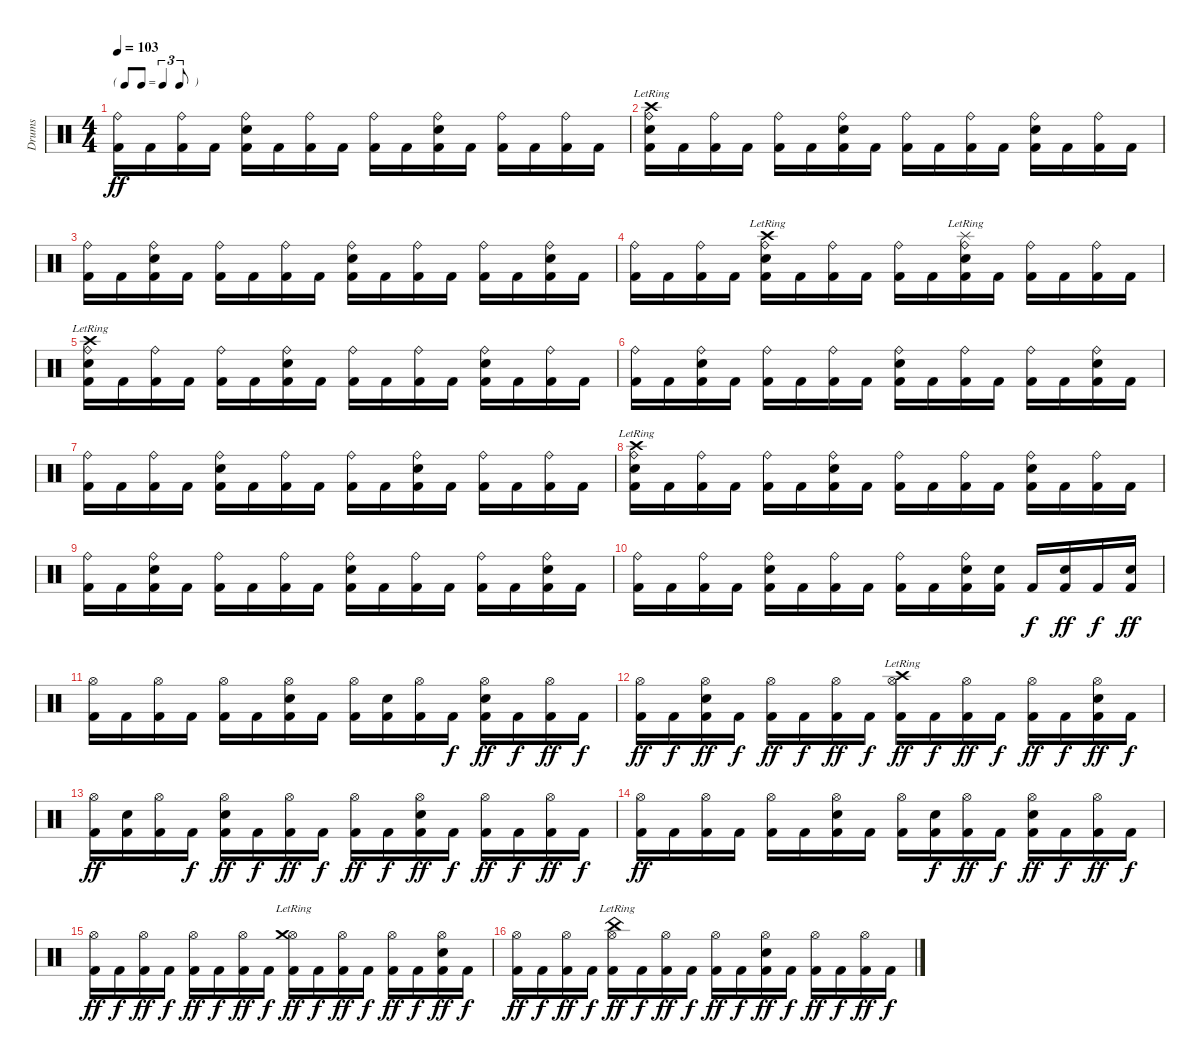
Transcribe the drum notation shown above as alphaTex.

\track ("Drums" "Drums") {instrument percussion}
\staff {score}
\articulation defaults
\ts (4 4)
\tf triplet8th
\tempo 103
\clef neutral
\ks c
("Ride (bell)" "Kick (hit) 2").16{dy ff} "Kick (hit) 2".16 ("Ride (bell)" "Kick (hit) 2").16 "Kick (hit) 2".16 ("Ride (bell)" "Electric Snare (hit)" "Kick (hit) 2").16 "Kick (hit) 2".16 ("Ride (bell)" "Kick (hit) 2").16 "Kick (hit) 2".16 ("Ride (bell)" "Kick (hit) 2").16 "Kick (hit) 2".16 ("Ride (bell)" "Electric Snare (hit)" "Kick (hit) 2").16 "Kick (hit) 2".16 ("Ride (bell)" "Kick (hit) 2").16 "Kick (hit) 2".16 ("Ride (bell)" "Kick (hit) 2").16 "Kick (hit) 2".16 |
("Ride (bell)"{lr} "Crash high (hit)"{lr} "Electric Snare (hit)" "Kick (hit) 2").16 "Kick (hit) 2".16 ("Ride (bell)" "Kick (hit) 2").16 "Kick (hit) 2".16 ("Ride (bell)" "Kick (hit) 2").16 "Kick (hit) 2".16 ("Ride (bell)" "Electric Snare (hit)" "Kick (hit) 2").16 "Kick (hit) 2".16 ("Ride (bell)" "Kick (hit) 2").16 "Kick (hit) 2".16 ("Ride (bell)" "Kick (hit) 2").16 "Kick (hit) 2".16 ("Ride (bell)" "Electric Snare (hit)" "Kick (hit) 2").16 "Kick (hit) 2".16 ("Ride (bell)" "Kick (hit) 2").16 "Kick (hit) 2".16 |
("Ride (bell)" "Kick (hit) 2").16 "Kick (hit) 2".16 ("Ride (bell)" "Electric Snare (hit)" "Kick (hit) 2").16 "Kick (hit) 2".16 ("Ride (bell)" "Kick (hit) 2").16 "Kick (hit) 2".16 ("Ride (bell)" "Kick (hit) 2").16 "Kick (hit) 2".16 ("Ride (bell)" "Electric Snare (hit)" "Kick (hit) 2").16 "Kick (hit) 2".16 ("Ride (bell)" "Kick (hit) 2").16 "Kick (hit) 2".16 ("Ride (bell)" "Kick (hit) 2").16 "Kick (hit) 2".16 ("Ride (bell)" "Electric Snare (hit)" "Kick (hit) 2").16 "Kick (hit) 2".16 |
("Ride (bell)" "Kick (hit) 2").16 "Kick (hit) 2".16 ("Ride (bell)" "Kick (hit) 2").16 "Kick (hit) 2".16 ("Ride (bell)" "Electric Snare (hit)" "Crash high (hit)"{lr} "Kick (hit) 2").16 "Kick (hit) 2".16 ("Ride (bell)" "Kick (hit) 2").16 "Kick (hit) 2".16 ("Ride (bell)" "Kick (hit) 2").16 "Kick (hit) 2".16 ("Ride (bell)" "Electric Snare (hit)" "Splash (hit)"{lr} "Kick (hit) 2").16 "Kick (hit) 2".16 ("Ride (bell)" "Kick (hit) 2").16 "Kick (hit) 2".16 ("Ride (bell)" "Kick (hit) 2").16 "Kick (hit) 2".16 |
("Ride (bell)"{lr} "Crash high (hit)"{lr} "Electric Snare (hit)" "Kick (hit) 2").16 "Kick (hit) 2".16 ("Ride (bell)" "Kick (hit) 2").16 "Kick (hit) 2".16 ("Ride (bell)" "Kick (hit) 2").16 "Kick (hit) 2".16 ("Ride (bell)" "Electric Snare (hit)" "Kick (hit) 2").16 "Kick (hit) 2".16 ("Ride (bell)" "Kick (hit) 2").16 "Kick (hit) 2".16 ("Ride (bell)" "Kick (hit) 2").16 "Kick (hit) 2".16 ("Ride (bell)" "Electric Snare (hit)" "Kick (hit) 2").16 "Kick (hit) 2".16 ("Ride (bell)" "Kick (hit) 2").16 "Kick (hit) 2".16 |
("Ride (bell)" "Kick (hit) 2").16 "Kick (hit) 2".16 ("Ride (bell)" "Electric Snare (hit)" "Kick (hit) 2").16 "Kick (hit) 2".16 ("Ride (bell)" "Kick (hit) 2").16 "Kick (hit) 2".16 ("Ride (bell)" "Kick (hit) 2").16 "Kick (hit) 2".16 ("Ride (bell)" "Electric Snare (hit)" "Kick (hit) 2").16 "Kick (hit) 2".16 ("Ride (bell)" "Kick (hit) 2").16 "Kick (hit) 2".16 ("Ride (bell)" "Kick (hit) 2").16 "Kick (hit) 2".16 ("Ride (bell)" "Electric Snare (hit)" "Kick (hit) 2").16 "Kick (hit) 2".16 |
("Ride (bell)" "Kick (hit) 2").16 "Kick (hit) 2".16 ("Ride (bell)" "Kick (hit) 2").16 "Kick (hit) 2".16 ("Ride (bell)" "Electric Snare (hit)" "Kick (hit) 2").16 "Kick (hit) 2".16 ("Ride (bell)" "Kick (hit) 2").16 "Kick (hit) 2".16 ("Ride (bell)" "Kick (hit) 2").16 "Kick (hit) 2".16 ("Ride (bell)" "Electric Snare (hit)" "Kick (hit) 2").16 "Kick (hit) 2".16 ("Ride (bell)" "Kick (hit) 2").16 "Kick (hit) 2".16 ("Ride (bell)" "Kick (hit) 2").16 "Kick (hit) 2".16 |
("Ride (bell)"{lr} "Crash high (hit)"{lr} "Electric Snare (hit)" "Kick (hit) 2").16 "Kick (hit) 2".16 ("Ride (bell)" "Kick (hit) 2").16 "Kick (hit) 2".16 ("Ride (bell)" "Kick (hit) 2").16 "Kick (hit) 2".16 ("Ride (bell)" "Electric Snare (hit)" "Kick (hit) 2").16 "Kick (hit) 2".16 ("Ride (bell)" "Kick (hit) 2").16 "Kick (hit) 2".16 ("Ride (bell)" "Kick (hit) 2").16 "Kick (hit) 2".16 ("Ride (bell)" "Electric Snare (hit)" "Kick (hit) 2").16 "Kick (hit) 2".16 ("Ride (bell)" "Kick (hit) 2").16 "Kick (hit) 2".16 |
("Ride (bell)" "Kick (hit) 2").16 "Kick (hit) 2".16 ("Ride (bell)" "Electric Snare (hit)" "Kick (hit) 2").16 "Kick (hit) 2".16 ("Ride (bell)" "Kick (hit) 2").16 "Kick (hit) 2".16 ("Ride (bell)" "Kick (hit) 2").16 "Kick (hit) 2".16 ("Ride (bell)" "Electric Snare (hit)" "Kick (hit) 2").16 "Kick (hit) 2".16 ("Ride (bell)" "Kick (hit) 2").16 "Kick (hit) 2".16 ("Ride (bell)" "Kick (hit) 2").16 "Kick (hit) 2".16 ("Ride (bell)" "Electric Snare (hit)" "Kick (hit) 2").16 "Kick (hit) 2".16 |
("Ride (bell)" "Kick (hit) 2").16 "Kick (hit) 2".16 ("Ride (bell)" "Kick (hit) 2").16 "Kick (hit) 2".16 ("Ride (bell)" "Electric Snare (hit)" "Kick (hit) 2").16 "Kick (hit) 2".16 ("Ride (bell)" "Kick (hit) 2").16 "Kick (hit) 2".16 ("Ride (bell)" "Kick (hit) 2").16 "Kick (hit) 2".16 ("Ride (bell)" "Electric Snare (hit)" "Kick (hit) 2").16 ("Electric Snare (hit)" "Kick (hit) 2").16 "Kick (hit) 2".16{dy f} ("Electric Snare (hit)" "Kick (hit) 2").16{dy ff} "Kick (hit) 2".16{dy f} ("Electric Snare (hit)" "Kick (hit) 2").16{dy ff} |
("Hi-Hat (open)" "Kick (hit) 2").16 "Kick (hit) 2".16 ("Hi-Hat (open)" "Kick (hit) 2").16 "Kick (hit) 2".16 ("Hi-Hat (open)" "Kick (hit) 2").16 "Kick (hit) 2".16 ("Hi-Hat (open)" "Electric Snare (hit)" "Kick (hit) 2").16 "Kick (hit) 2".16 ("Hi-Hat (open)" "Kick (hit) 2").16 ("Electric Snare (hit)" "Kick (hit) 2").16 ("Hi-Hat (open)" "Kick (hit) 2").16 "Kick (hit) 2".16{dy f} ("Hi-Hat (open)" "Electric Snare (hit)" "Kick (hit) 2").16{dy ff} "Kick (hit) 2".16{dy f} ("Hi-Hat (open)" "Kick (hit) 2").16{dy ff} "Kick (hit) 2".16{dy f} |
("Hi-Hat (open)" "Kick (hit) 2").16{dy ff} "Kick (hit) 2".16{dy f} ("Hi-Hat (open)" "Electric Snare (hit)" "Kick (hit) 2").16{dy ff} "Kick (hit) 2".16{dy f} ("Hi-Hat (open)" "Kick (hit) 2").16{dy ff} "Kick (hit) 2".16{dy f} ("Hi-Hat (open)" "Kick (hit) 2").16{dy ff} "Kick (hit) 2".16{dy f} ("Hi-Hat (open)" "Crash high (hit)"{lr} "Kick (hit) 2").16{dy ff} "Kick (hit) 2".16{dy f} ("Hi-Hat (open)" "Kick (hit) 2").16{dy ff} "Kick (hit) 2".16{dy f} ("Hi-Hat (open)" "Kick (hit) 2").16{dy ff} "Kick (hit) 2".16{dy f} ("Hi-Hat (open)" "Electric Snare (hit)" "Kick (hit) 2").16{dy ff} "Kick (hit) 2".16{dy f} |
("Hi-Hat (open)" "Kick (hit) 2").16{dy ff} ("Electric Snare (hit)" "Kick (hit) 2").16 ("Hi-Hat (open)" "Kick (hit) 2").16 "Kick (hit) 2".16{dy f} ("Hi-Hat (open)" "Electric Snare (hit)" "Kick (hit) 2").16{dy ff} "Kick (hit) 2".16{dy f} ("Hi-Hat (open)" "Kick (hit) 2").16{dy ff} "Kick (hit) 2".16{dy f} ("Hi-Hat (open)" "Kick (hit) 2").16{dy ff} "Kick (hit) 2".16{dy f} ("Hi-Hat (open)" "Electric Snare (hit)" "Kick (hit) 2").16{dy ff} "Kick (hit) 2".16{dy f} ("Hi-Hat (open)" "Kick (hit) 2").16{dy ff} "Kick (hit) 2".16{dy f} ("Hi-Hat (open)" "Kick (hit) 2").16{dy ff} "Kick (hit) 2".16{dy f} |
("Hi-Hat (open)" "Kick (hit) 2").16{dy ff} "Kick (hit) 2".16 ("Hi-Hat (open)" "Kick (hit) 2").16 "Kick (hit) 2".16 ("Hi-Hat (open)" "Kick (hit) 2").16 "Kick (hit) 2".16 ("Hi-Hat (open)" "Electric Snare (hit)" "Kick (hit) 2").16 "Kick (hit) 2".16 ("Hi-Hat (open)" "Kick (hit) 2").16 ("Electric Snare (hit)" "Kick (hit) 2").16{dy f} ("Hi-Hat (open)" "Kick (hit) 2").16{dy ff} "Kick (hit) 2".16{dy f} ("Hi-Hat (open)" "Electric Snare (hit)" "Kick (hit) 2").16{dy ff} "Kick (hit) 2".16{dy f} ("Hi-Hat (open)" "Kick (hit) 2").16{dy ff} "Kick (hit) 2".16{dy f} |
("Hi-Hat (open)" "Kick (hit) 2").16{dy ff} "Kick (hit) 2".16{dy f} ("Hi-Hat (open)" "Kick (hit) 2").16{dy ff} "Kick (hit) 2".16{dy f} ("Hi-Hat (open)" "Kick (hit) 2").16{dy ff} "Kick (hit) 2".16{dy f} ("Hi-Hat (open)" "Kick (hit) 2").16{dy ff} "Kick (hit) 2".16{dy f} ("Hi-Hat (open)" "Crash medium (hit)"{lr} "Kick (hit) 2").16{dy ff} "Kick (hit) 2".16{dy f} ("Hi-Hat (open)" "Kick (hit) 2").16{dy ff} "Kick (hit) 2".16{dy f} ("Hi-Hat (open)" "Kick (hit) 2").16{dy ff} "Kick (hit) 2".16{dy f} ("Hi-Hat (open)" "Electric Snare (hit)" "Kick (hit) 2").16{dy ff} "Kick (hit) 2".16{dy f} |
("Hi-Hat (open)" "Kick (hit) 2").16{dy ff} "Kick (hit) 2".16{dy f} ("Hi-Hat (open)" "Kick (hit) 2").16{dy ff} "Kick (hit) 2".16{dy f} ("Hi-Hat (open)" "China (hit)"{lr} "Kick (hit) 2").16{dy ff} "Kick (hit) 2".16{dy f} ("Hi-Hat (open)" "Kick (hit) 2").16{dy ff} "Kick (hit) 2".16{dy f} ("Hi-Hat (open)" "Kick (hit) 2").16{dy ff} "Kick (hit) 2".16{dy f} ("Hi-Hat (open)" "Electric Snare (hit)" "Kick (hit) 2").16{dy ff} "Kick (hit) 2".16{dy f} ("Hi-Hat (open)" "Kick (hit) 2").16{dy ff} "Kick (hit) 2".16{dy f} ("Hi-Hat (open)" "Kick (hit) 2").16{dy ff} "Kick (hit) 2".16{dy f}
